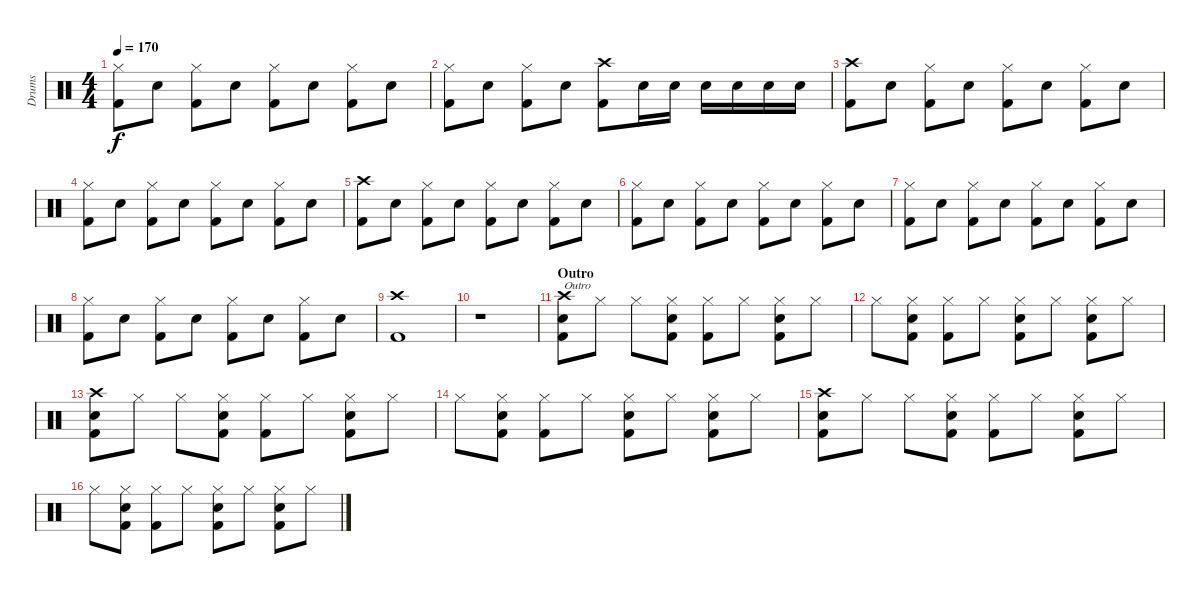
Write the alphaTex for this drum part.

\track ("Drums" "Drums") {instrument percussion}
\staff {score}
\articulation defaults
\ts (4 4)
\tempo 170
\clef neutral
\ks c
("Hi-Hat (closed)" "Kick (hit) 2").8{dy f} "Electric Snare (hit)".8 ("Hi-Hat (closed)" "Kick (hit) 2").8 "Electric Snare (hit)".8 ("Hi-Hat (closed)" "Kick (hit) 2").8 "Electric Snare (hit)".8 ("Hi-Hat (closed)" "Kick (hit) 2").8 "Electric Snare (hit)".8 |
("Hi-Hat (closed)" "Kick (hit) 2").8 "Electric Snare (hit)".8 ("Hi-Hat (closed)" "Kick (hit) 2").8 "Electric Snare (hit)".8 ("Crash high (hit)" "Kick (hit) 2").8 "Electric Snare (hit)".16 "Electric Snare (hit)".16 "Electric Snare (hit)".16 "Electric Snare (hit)".16 "Electric Snare (hit)".16 "Electric Snare (hit)".16 |
("Crash high (hit)" "Kick (hit) 2").8 "Electric Snare (hit)".8 ("Hi-Hat (closed)" "Kick (hit) 2").8 "Electric Snare (hit)".8 ("Hi-Hat (closed)" "Kick (hit) 2").8 "Electric Snare (hit)".8 ("Hi-Hat (closed)" "Kick (hit) 2").8 "Electric Snare (hit)".8 |
("Hi-Hat (closed)" "Kick (hit) 2").8 "Electric Snare (hit)".8 ("Hi-Hat (closed)" "Kick (hit) 2").8 "Electric Snare (hit)".8 ("Hi-Hat (closed)" "Kick (hit) 2").8 "Electric Snare (hit)".8 ("Hi-Hat (closed)" "Kick (hit) 2").8 "Electric Snare (hit)".8 |
("Crash high (hit)" "Kick (hit) 2").8 "Electric Snare (hit)".8 ("Hi-Hat (closed)" "Kick (hit) 2").8 "Electric Snare (hit)".8 ("Hi-Hat (closed)" "Kick (hit) 2").8 "Electric Snare (hit)".8 ("Hi-Hat (closed)" "Kick (hit) 2").8 "Electric Snare (hit)".8 |
("Hi-Hat (closed)" "Kick (hit) 2").8 "Electric Snare (hit)".8 ("Hi-Hat (closed)" "Kick (hit) 2").8 "Electric Snare (hit)".8 ("Hi-Hat (closed)" "Kick (hit) 2").8 "Electric Snare (hit)".8 ("Hi-Hat (closed)" "Kick (hit) 2").8 "Electric Snare (hit)".8 |
("Hi-Hat (closed)" "Kick (hit) 2").8 "Electric Snare (hit)".8 ("Hi-Hat (closed)" "Kick (hit) 2").8 "Electric Snare (hit)".8 ("Hi-Hat (closed)" "Kick (hit) 2").8 "Electric Snare (hit)".8 ("Hi-Hat (closed)" "Kick (hit) 2").8 "Electric Snare (hit)".8 |
("Hi-Hat (closed)" "Kick (hit) 2").8 "Electric Snare (hit)".8 ("Hi-Hat (closed)" "Kick (hit) 2").8 "Electric Snare (hit)".8 ("Hi-Hat (closed)" "Kick (hit) 2").8 "Electric Snare (hit)".8 ("Hi-Hat (closed)" "Kick (hit) 2").8 "Electric Snare (hit)".8 |
("Crash high (hit)" "Kick (hit) 2").1 |
r.1 |
\section ("" "Outro")
("Crash high (hit)" "Electric Snare (hit)" "Kick (hit) 2").8{txt "Outro"} "Hi-Hat (closed)".8 "Hi-Hat (closed)".8 ("Hi-Hat (closed)" "Electric Snare (hit)" "Kick (hit) 2").8 ("Hi-Hat (closed)" "Kick (hit) 2").8 "Hi-Hat (closed)".8 ("Hi-Hat (closed)" "Electric Snare (hit)" "Kick (hit) 2").8 "Hi-Hat (closed)".8 |
"Hi-Hat (closed)".8 ("Hi-Hat (closed)" "Electric Snare (hit)" "Kick (hit) 2").8 ("Hi-Hat (closed)" "Kick (hit) 2").8 "Hi-Hat (closed)".8 ("Hi-Hat (closed)" "Electric Snare (hit)" "Kick (hit) 2").8 "Hi-Hat (closed)".8 ("Hi-Hat (closed)" "Electric Snare (hit)" "Kick (hit) 2").8 "Hi-Hat (closed)".8 |
("Crash high (hit)" "Electric Snare (hit)" "Kick (hit) 2").8 "Hi-Hat (closed)".8 "Hi-Hat (closed)".8 ("Hi-Hat (closed)" "Electric Snare (hit)" "Kick (hit) 2").8 ("Hi-Hat (closed)" "Kick (hit) 2").8 "Hi-Hat (closed)".8 ("Hi-Hat (closed)" "Electric Snare (hit)" "Kick (hit) 2").8 "Hi-Hat (closed)".8 |
"Hi-Hat (closed)".8 ("Hi-Hat (closed)" "Electric Snare (hit)" "Kick (hit) 2").8 ("Hi-Hat (closed)" "Kick (hit) 2").8 "Hi-Hat (closed)".8 ("Hi-Hat (closed)" "Electric Snare (hit)" "Kick (hit) 2").8 "Hi-Hat (closed)".8 ("Hi-Hat (closed)" "Electric Snare (hit)" "Kick (hit) 2").8 "Hi-Hat (closed)".8 |
("Crash high (hit)" "Electric Snare (hit)" "Kick (hit) 2").8 "Hi-Hat (closed)".8 "Hi-Hat (closed)".8 ("Hi-Hat (closed)" "Electric Snare (hit)" "Kick (hit) 2").8 ("Hi-Hat (closed)" "Kick (hit) 2").8 "Hi-Hat (closed)".8 ("Hi-Hat (closed)" "Electric Snare (hit)" "Kick (hit) 2").8 "Hi-Hat (closed)".8 |
"Hi-Hat (closed)".8 ("Hi-Hat (closed)" "Electric Snare (hit)" "Kick (hit) 2").8 ("Hi-Hat (closed)" "Kick (hit) 2").8 "Hi-Hat (closed)".8 ("Hi-Hat (closed)" "Electric Snare (hit)" "Kick (hit) 2").8 "Hi-Hat (closed)".8 ("Hi-Hat (closed)" "Electric Snare (hit)" "Kick (hit) 2").8 "Hi-Hat (closed)".8
